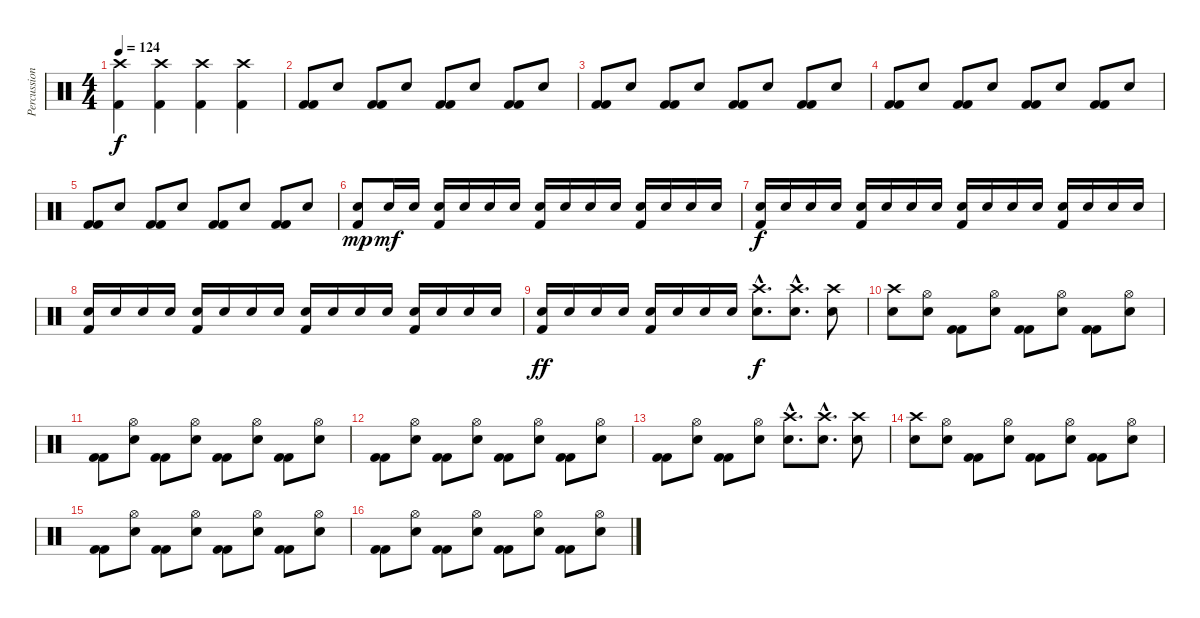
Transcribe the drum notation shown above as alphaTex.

\track ("Percussions" "Percussion") {instrument percussion}
\staff {score}
\articulation defaults
\ts (4 4)
\tempo 124
\clef neutral
\ks c
("Kick (hit) 2" "Crash high (hit)").4{dy f} ("Kick (hit) 2" "Crash high (hit)").4 ("Kick (hit) 2" "Crash high (hit)").4 ("Kick (hit) 2" "Crash high (hit)").4 |
("Kick (hit) 2" "Kick (hit) 2").8 "Hand Clap (hit)".8 ("Kick (hit) 2" "Kick (hit) 2").8 "Hand Clap (hit)".8 ("Kick (hit) 2" "Kick (hit) 2").8 "Hand Clap (hit)".8 ("Kick (hit) 2" "Kick (hit) 2").8 "Hand Clap (hit)".8 |
("Kick (hit) 2" "Kick (hit) 2").8 "Hand Clap (hit)".8 ("Kick (hit) 2" "Kick (hit) 2").8 "Hand Clap (hit)".8 ("Kick (hit) 2" "Kick (hit) 2").8 "Hand Clap (hit)".8 ("Kick (hit) 2" "Kick (hit) 2").8 "Hand Clap (hit)".8 |
("Kick (hit) 2" "Kick (hit) 2").8 "Hand Clap (hit)".8 ("Kick (hit) 2" "Kick (hit) 2").8 "Hand Clap (hit)".8 ("Kick (hit) 2" "Kick (hit) 2").8 "Hand Clap (hit)".8 ("Kick (hit) 2" "Kick (hit) 2").8 "Hand Clap (hit)".8 |
("Kick (hit) 2" "Kick (hit) 2").8 "Hand Clap (hit)".8 ("Kick (hit) 2" "Kick (hit) 2").8 "Hand Clap (hit)".8 ("Kick (hit) 2" "Kick (hit) 2").8 "Hand Clap (hit)".8 ("Kick (hit) 2" "Kick (hit) 2").8 "Hand Clap (hit)".8 |
("Snare (hit) 2" "Kick (hit) 2").8{dy mp} "Snare (hit) 2".16{dy mf} "Snare (hit) 2".16 ("Snare (hit) 2" "Kick (hit) 2").16 "Snare (hit) 2".16 "Snare (hit) 2".16 "Snare (hit) 2".16 ("Snare (hit) 2" "Kick (hit) 2").16 "Snare (hit) 2".16 "Snare (hit) 2".16 "Snare (hit) 2".16 ("Snare (hit) 2" "Kick (hit) 2").16 "Snare (hit) 2".16 "Snare (hit) 2".16 "Snare (hit) 2".16 |
("Snare (hit) 2" "Kick (hit) 2").16{dy f} "Snare (hit) 2".16 "Snare (hit) 2".16 "Snare (hit) 2".16 ("Snare (hit) 2" "Kick (hit) 2").16 "Snare (hit) 2".16 "Snare (hit) 2".16 "Snare (hit) 2".16 ("Snare (hit) 2" "Kick (hit) 2").16 "Snare (hit) 2".16 "Snare (hit) 2".16 "Snare (hit) 2".16 ("Snare (hit) 2" "Kick (hit) 2").16 "Snare (hit) 2".16 "Snare (hit) 2".16 "Snare (hit) 2".16 |
("Snare (hit) 2" "Kick (hit) 2").16 "Snare (hit) 2".16 "Snare (hit) 2".16 "Snare (hit) 2".16 ("Snare (hit) 2" "Kick (hit) 2").16 "Snare (hit) 2".16 "Snare (hit) 2".16 "Snare (hit) 2".16 ("Snare (hit) 2" "Kick (hit) 2").16 "Snare (hit) 2".16 "Snare (hit) 2".16 "Snare (hit) 2".16 ("Snare (hit) 2" "Kick (hit) 2").16 "Snare (hit) 2".16 "Snare (hit) 2".16 "Snare (hit) 2".16 |
("Snare (hit) 2" "Kick (hit) 2").16{dy ff} "Snare (hit) 2".16 "Snare (hit) 2".16 "Snare (hit) 2".16 ("Snare (hit) 2" "Kick (hit) 2").16 "Snare (hit) 2".16 "Snare (hit) 2".16 "Snare (hit) 2".16 ("Snare (hit) 2"{hac} "Crash high (hit)"{hac}).8{d dy f} ("Snare (hit) 2"{hac} "Crash high (hit)"{hac}).8{d} ("Snare (hit) 2" "Crash high (hit)").8 |
("Snare (hit) 2" "Crash high (hit)").8 ("Hand Clap (hit)" "Hi-Hat (open)").8 ("Kick (hit) 2" "Kick (hit) 2").8 ("Hand Clap (hit)" "Hi-Hat (open)").8 ("Kick (hit) 2" "Kick (hit) 2").8 ("Hand Clap (hit)" "Hi-Hat (open)").8 ("Kick (hit) 2" "Kick (hit) 2").8 ("Hand Clap (hit)" "Hi-Hat (open)").8 |
("Kick (hit) 2" "Kick (hit) 2").8 ("Hand Clap (hit)" "Hi-Hat (open)").8 ("Kick (hit) 2" "Kick (hit) 2").8 ("Hand Clap (hit)" "Hi-Hat (open)").8 ("Kick (hit) 2" "Kick (hit) 2").8 ("Hand Clap (hit)" "Hi-Hat (open)").8 ("Kick (hit) 2" "Kick (hit) 2").8 ("Hand Clap (hit)" "Hi-Hat (open)").8 |
("Kick (hit) 2" "Kick (hit) 2").8 ("Hand Clap (hit)" "Hi-Hat (open)").8 ("Kick (hit) 2" "Kick (hit) 2").8 ("Hand Clap (hit)" "Hi-Hat (open)").8 ("Kick (hit) 2" "Kick (hit) 2").8 ("Hand Clap (hit)" "Hi-Hat (open)").8 ("Kick (hit) 2" "Kick (hit) 2").8 ("Hand Clap (hit)" "Hi-Hat (open)").8 |
("Kick (hit) 2" "Kick (hit) 2").8 ("Hand Clap (hit)" "Hi-Hat (open)").8 ("Kick (hit) 2" "Kick (hit) 2").8 ("Hand Clap (hit)" "Hi-Hat (open)").8 ("Snare (hit) 2"{hac} "Crash high (hit)"{hac}).8{d} ("Snare (hit) 2"{hac} "Crash high (hit)"{hac}).8{d} ("Snare (hit) 2" "Crash high (hit)").8 |
("Snare (hit) 2" "Crash high (hit)").8 ("Hand Clap (hit)" "Hi-Hat (open)").8 ("Kick (hit) 2" "Kick (hit) 2").8 ("Hand Clap (hit)" "Hi-Hat (open)").8 ("Kick (hit) 2" "Kick (hit) 2").8 ("Hand Clap (hit)" "Hi-Hat (open)").8 ("Kick (hit) 2" "Kick (hit) 2").8 ("Hand Clap (hit)" "Hi-Hat (open)").8 |
("Kick (hit) 2" "Kick (hit) 2").8 ("Hand Clap (hit)" "Hi-Hat (open)").8 ("Kick (hit) 2" "Kick (hit) 2").8 ("Hand Clap (hit)" "Hi-Hat (open)").8 ("Kick (hit) 2" "Kick (hit) 2").8 ("Hand Clap (hit)" "Hi-Hat (open)").8 ("Kick (hit) 2" "Kick (hit) 2").8 ("Hand Clap (hit)" "Hi-Hat (open)").8 |
("Kick (hit) 2" "Kick (hit) 2").8 ("Hand Clap (hit)" "Hi-Hat (open)").8 ("Kick (hit) 2" "Kick (hit) 2").8 ("Hand Clap (hit)" "Hi-Hat (open)").8 ("Kick (hit) 2" "Kick (hit) 2").8 ("Hand Clap (hit)" "Hi-Hat (open)").8 ("Kick (hit) 2" "Kick (hit) 2").8 ("Hand Clap (hit)" "Hi-Hat (open)").8
